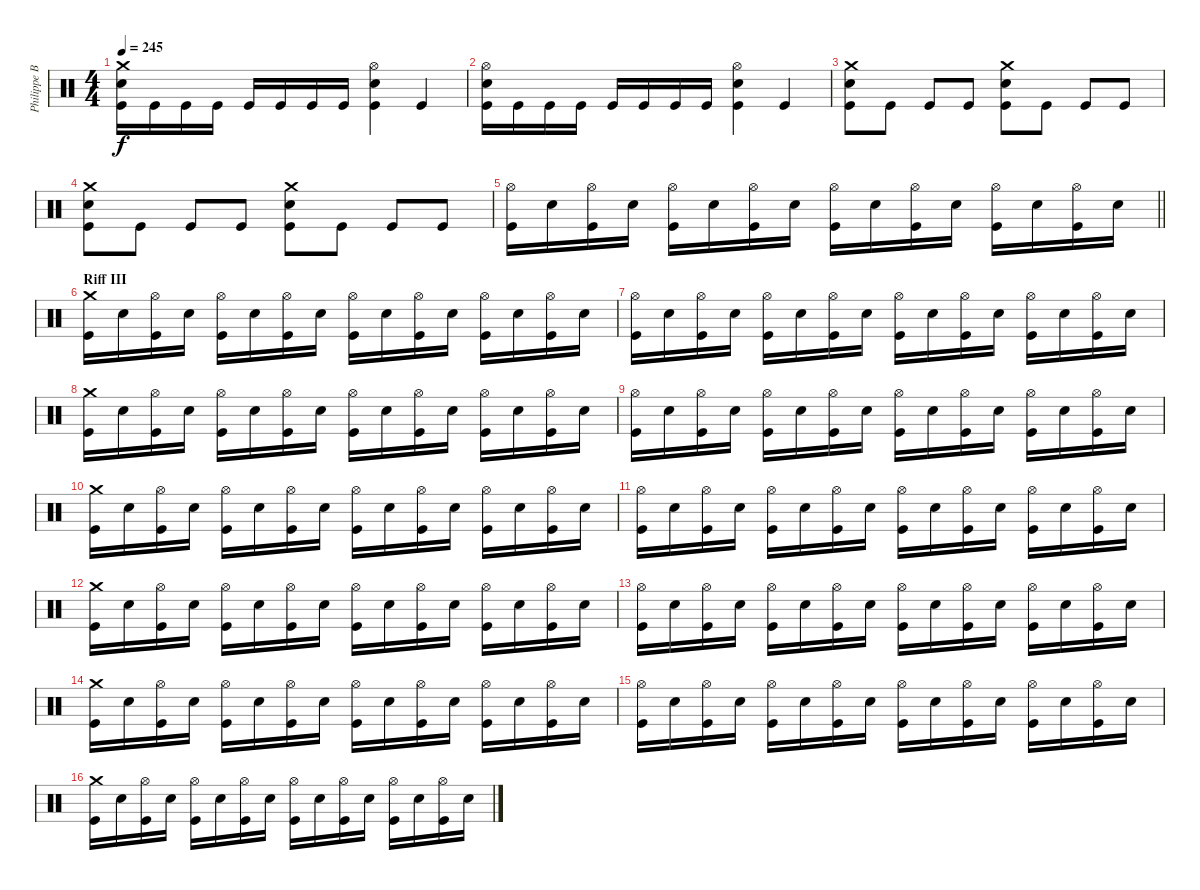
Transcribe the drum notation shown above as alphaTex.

\track ("Philippe Boucher" "Philippe B") {instrument percussion}
\staff {score}
\articulation defaults
\ts (4 4)
\tempo 245
\clef neutral
\ks c
("Crash medium (hit)" "Electric Snare (hit)" "Kick (hit)").16{dy f} "Kick (hit)".16 "Kick (hit)".16 "Kick (hit)".16 "Kick (hit)".16 "Kick (hit)".16 "Kick (hit)".16 "Kick (hit)".16 ("Hi-Hat (open)" "Electric Snare (hit)" "Kick (hit)").4 "Kick (hit)".4 |
("Hi-Hat (open)" "Electric Snare (hit)" "Kick (hit)").16 "Kick (hit)".16 "Kick (hit)".16 "Kick (hit)".16 "Kick (hit)".16 "Kick (hit)".16 "Kick (hit)".16 "Kick (hit)".16 ("Hi-Hat (open)" "Electric Snare (hit)" "Kick (hit)").4 "Kick (hit)".4 |
("Crash medium (hit)" "Electric Snare (hit)" "Kick (hit)").8 "Kick (hit)".8 "Kick (hit)".8 "Kick (hit)".8 ("Crash medium (hit)" "Electric Snare (hit)" "Kick (hit)").8 "Kick (hit)".8 "Kick (hit)".8 "Kick (hit)".8 |
("Crash medium (hit)" "Electric Snare (hit)" "Kick (hit)").8 "Kick (hit)".8 "Kick (hit)".8 "Kick (hit)".8 ("Crash medium (hit)" "Electric Snare (hit)" "Kick (hit)").8 "Kick (hit)".8 "Kick (hit)".8 "Kick (hit)".8 |
\barLineRight lightlight
("Hi-Hat (open)" "Kick (hit)").16 "Electric Snare (hit)".16 ("Hi-Hat (open)" "Kick (hit)").16 "Electric Snare (hit)".16 ("Hi-Hat (open)" "Kick (hit)").16 "Electric Snare (hit)".16 ("Hi-Hat (open)" "Kick (hit)").16 "Electric Snare (hit)".16 ("Hi-Hat (open)" "Kick (hit)").16 "Electric Snare (hit)".16 ("Hi-Hat (open)" "Kick (hit)").16 "Electric Snare (hit)".16 ("Hi-Hat (open)" "Kick (hit)").16 "Electric Snare (hit)".16 ("Hi-Hat (open)" "Kick (hit)").16 "Electric Snare (hit)".16 |
\section ("" "Riff III")
("Crash medium (hit)" "Kick (hit)").16 "Electric Snare (hit)".16 ("Hi-Hat (open)" "Kick (hit)").16 "Electric Snare (hit)".16 ("Hi-Hat (open)" "Kick (hit)").16 "Electric Snare (hit)".16 ("Hi-Hat (open)" "Kick (hit)").16 "Electric Snare (hit)".16 ("Hi-Hat (open)" "Kick (hit)").16 "Electric Snare (hit)".16 ("Hi-Hat (open)" "Kick (hit)").16 "Electric Snare (hit)".16 ("Hi-Hat (open)" "Kick (hit)").16 "Electric Snare (hit)".16 ("Hi-Hat (open)" "Kick (hit)").16 "Electric Snare (hit)".16 |
("Hi-Hat (open)" "Kick (hit)").16 "Electric Snare (hit)".16 ("Hi-Hat (open)" "Kick (hit)").16 "Electric Snare (hit)".16 ("Hi-Hat (open)" "Kick (hit)").16 "Electric Snare (hit)".16 ("Hi-Hat (open)" "Kick (hit)").16 "Electric Snare (hit)".16 ("Hi-Hat (open)" "Kick (hit)").16 "Electric Snare (hit)".16 ("Hi-Hat (open)" "Kick (hit)").16 "Electric Snare (hit)".16 ("Hi-Hat (open)" "Kick (hit)").16 "Electric Snare (hit)".16 ("Hi-Hat (open)" "Kick (hit)").16 "Electric Snare (hit)".16 |
("Crash medium (hit)" "Kick (hit)").16 "Electric Snare (hit)".16 ("Hi-Hat (open)" "Kick (hit)").16 "Electric Snare (hit)".16 ("Hi-Hat (open)" "Kick (hit)").16 "Electric Snare (hit)".16 ("Hi-Hat (open)" "Kick (hit)").16 "Electric Snare (hit)".16 ("Hi-Hat (open)" "Kick (hit)").16 "Electric Snare (hit)".16 ("Hi-Hat (open)" "Kick (hit)").16 "Electric Snare (hit)".16 ("Hi-Hat (open)" "Kick (hit)").16 "Electric Snare (hit)".16 ("Hi-Hat (open)" "Kick (hit)").16 "Electric Snare (hit)".16 |
("Hi-Hat (open)" "Kick (hit)").16 "Electric Snare (hit)".16 ("Hi-Hat (open)" "Kick (hit)").16 "Electric Snare (hit)".16 ("Hi-Hat (open)" "Kick (hit)").16 "Electric Snare (hit)".16 ("Hi-Hat (open)" "Kick (hit)").16 "Electric Snare (hit)".16 ("Hi-Hat (open)" "Kick (hit)").16 "Electric Snare (hit)".16 ("Hi-Hat (open)" "Kick (hit)").16 "Electric Snare (hit)".16 ("Hi-Hat (open)" "Kick (hit)").16 "Electric Snare (hit)".16 ("Hi-Hat (open)" "Kick (hit)").16 "Electric Snare (hit)".16 |
("Crash medium (hit)" "Kick (hit)").16 "Electric Snare (hit)".16 ("Hi-Hat (open)" "Kick (hit)").16 "Electric Snare (hit)".16 ("Hi-Hat (open)" "Kick (hit)").16 "Electric Snare (hit)".16 ("Hi-Hat (open)" "Kick (hit)").16 "Electric Snare (hit)".16 ("Hi-Hat (open)" "Kick (hit)").16 "Electric Snare (hit)".16 ("Hi-Hat (open)" "Kick (hit)").16 "Electric Snare (hit)".16 ("Hi-Hat (open)" "Kick (hit)").16 "Electric Snare (hit)".16 ("Hi-Hat (open)" "Kick (hit)").16 "Electric Snare (hit)".16 |
("Hi-Hat (open)" "Kick (hit)").16 "Electric Snare (hit)".16 ("Hi-Hat (open)" "Kick (hit)").16 "Electric Snare (hit)".16 ("Hi-Hat (open)" "Kick (hit)").16 "Electric Snare (hit)".16 ("Hi-Hat (open)" "Kick (hit)").16 "Electric Snare (hit)".16 ("Hi-Hat (open)" "Kick (hit)").16 "Electric Snare (hit)".16 ("Hi-Hat (open)" "Kick (hit)").16 "Electric Snare (hit)".16 ("Hi-Hat (open)" "Kick (hit)").16 "Electric Snare (hit)".16 ("Hi-Hat (open)" "Kick (hit)").16 "Electric Snare (hit)".16 |
("Crash medium (hit)" "Kick (hit)").16 "Electric Snare (hit)".16 ("Hi-Hat (open)" "Kick (hit)").16 "Electric Snare (hit)".16 ("Hi-Hat (open)" "Kick (hit)").16 "Electric Snare (hit)".16 ("Hi-Hat (open)" "Kick (hit)").16 "Electric Snare (hit)".16 ("Hi-Hat (open)" "Kick (hit)").16 "Electric Snare (hit)".16 ("Hi-Hat (open)" "Kick (hit)").16 "Electric Snare (hit)".16 ("Hi-Hat (open)" "Kick (hit)").16 "Electric Snare (hit)".16 ("Hi-Hat (open)" "Kick (hit)").16 "Electric Snare (hit)".16 |
("Hi-Hat (open)" "Kick (hit)").16 "Electric Snare (hit)".16 ("Hi-Hat (open)" "Kick (hit)").16 "Electric Snare (hit)".16 ("Hi-Hat (open)" "Kick (hit)").16 "Electric Snare (hit)".16 ("Hi-Hat (open)" "Kick (hit)").16 "Electric Snare (hit)".16 ("Hi-Hat (open)" "Kick (hit)").16 "Electric Snare (hit)".16 ("Hi-Hat (open)" "Kick (hit)").16 "Electric Snare (hit)".16 ("Hi-Hat (open)" "Kick (hit)").16 "Electric Snare (hit)".16 ("Hi-Hat (open)" "Kick (hit)").16 "Electric Snare (hit)".16 |
("Crash medium (hit)" "Kick (hit)").16 "Electric Snare (hit)".16 ("Hi-Hat (open)" "Kick (hit)").16 "Electric Snare (hit)".16 ("Hi-Hat (open)" "Kick (hit)").16 "Electric Snare (hit)".16 ("Hi-Hat (open)" "Kick (hit)").16 "Electric Snare (hit)".16 ("Hi-Hat (open)" "Kick (hit)").16 "Electric Snare (hit)".16 ("Hi-Hat (open)" "Kick (hit)").16 "Electric Snare (hit)".16 ("Hi-Hat (open)" "Kick (hit)").16 "Electric Snare (hit)".16 ("Hi-Hat (open)" "Kick (hit)").16 "Electric Snare (hit)".16 |
("Hi-Hat (open)" "Kick (hit)").16 "Electric Snare (hit)".16 ("Hi-Hat (open)" "Kick (hit)").16 "Electric Snare (hit)".16 ("Hi-Hat (open)" "Kick (hit)").16 "Electric Snare (hit)".16 ("Hi-Hat (open)" "Kick (hit)").16 "Electric Snare (hit)".16 ("Hi-Hat (open)" "Kick (hit)").16 "Electric Snare (hit)".16 ("Hi-Hat (open)" "Kick (hit)").16 "Electric Snare (hit)".16 ("Hi-Hat (open)" "Kick (hit)").16 "Electric Snare (hit)".16 ("Hi-Hat (open)" "Kick (hit)").16 "Electric Snare (hit)".16 |
("Crash medium (hit)" "Kick (hit)").16 "Electric Snare (hit)".16 ("Hi-Hat (open)" "Kick (hit)").16 "Electric Snare (hit)".16 ("Hi-Hat (open)" "Kick (hit)").16 "Electric Snare (hit)".16 ("Hi-Hat (open)" "Kick (hit)").16 "Electric Snare (hit)".16 ("Hi-Hat (open)" "Kick (hit)").16 "Electric Snare (hit)".16 ("Hi-Hat (open)" "Kick (hit)").16 "Electric Snare (hit)".16 ("Hi-Hat (open)" "Kick (hit)").16 "Electric Snare (hit)".16 ("Hi-Hat (open)" "Kick (hit)").16 "Electric Snare (hit)".16
